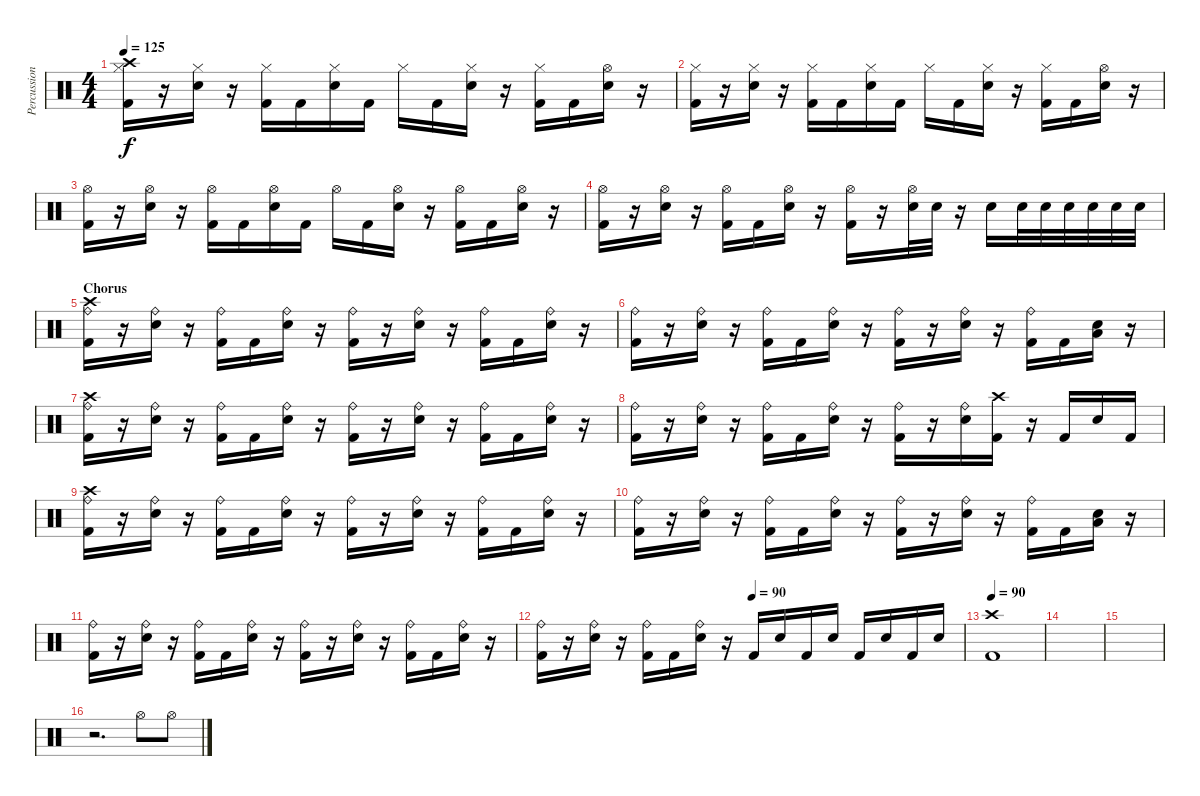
\track ("Percussioni" "Percussion") {instrument percussion}
\staff {score}
\articulation defaults
\ts (4 4)
\tempo 125
\clef neutral
\ks c
("Crash high (hit)" "Hi-Hat (closed)" "Kick (hit) 2").16{dy f} r.16 ("Hi-Hat (closed)" "Snare (hit) 2").16 r.16 ("Hi-Hat (closed)" "Kick (hit) 2").16 "Kick (hit) 2".16 ("Hi-Hat (closed)" "Snare (hit) 2").16 "Kick (hit) 2".16 "Hi-Hat (closed)".16 "Kick (hit) 2".16 ("Hi-Hat (closed)" "Snare (hit) 2").16 r.16 ("Hi-Hat (closed)" "Kick (hit) 2").16 "Kick (hit) 2".16 ("Hi-Hat (open)" "Snare (hit) 2").16 r.16 |
("Hi-Hat (closed)" "Kick (hit) 2").16 r.16 ("Hi-Hat (closed)" "Snare (hit) 2").16 r.16 ("Hi-Hat (closed)" "Kick (hit) 2").16 "Kick (hit) 2".16 ("Hi-Hat (closed)" "Snare (hit) 2").16 "Kick (hit) 2".16 "Hi-Hat (closed)".16 "Kick (hit) 2".16 ("Hi-Hat (closed)" "Snare (hit) 2").16 r.16 ("Hi-Hat (closed)" "Kick (hit) 2").16 "Kick (hit) 2".16 ("Hi-Hat (open)" "Snare (hit) 2").16 r.16 |
("Hi-Hat (open)" "Kick (hit) 2").16 r.16 ("Hi-Hat (open)" "Snare (hit) 2").16 r.16 ("Hi-Hat (open)" "Kick (hit) 2").16 "Kick (hit) 2".16 ("Hi-Hat (open)" "Snare (hit) 2").16 "Kick (hit) 2".16 "Hi-Hat (open)".16 "Kick (hit) 2".16 ("Hi-Hat (open)" "Snare (hit) 2").16 r.16 ("Hi-Hat (open)" "Kick (hit) 2").16 "Kick (hit) 2".16 ("Hi-Hat (open)" "Snare (hit) 2").16 r.16 |
("Hi-Hat (open)" "Kick (hit) 2").16 r.16 ("Hi-Hat (open)" "Snare (hit) 2").16 r.16 ("Hi-Hat (open)" "Kick (hit) 2").16 "Kick (hit) 2".16 ("Hi-Hat (open)" "Snare (hit) 2").16 r.16 ("Hi-Hat (open)" "Kick (hit) 2").16 r.16 ("Hi-Hat (open)" "Snare (hit) 2").32 "Snare (hit) 2".32 r.16 "Snare (hit) 2".16 "Snare (hit) 2".32 "Snare (hit) 2".32 "Snare (hit) 2".32 "Snare (hit) 2".32 "Snare (hit) 2".32 "Snare (hit) 2".32 |
\section ("" "Chorus")
("Crash high (hit)" "Ride (bell)" "Kick (hit) 2").16 r.16 ("Ride (bell)" "Snare (hit) 2").16 r.16 ("Ride (bell)" "Kick (hit) 2").16 "Kick (hit) 2".16 ("Ride (bell)" "Snare (hit) 2").16 r.16 ("Ride (bell)" "Kick (hit) 2").16 r.16 ("Ride (bell)" "Snare (hit) 2").16 r.16 ("Ride (bell)" "Kick (hit) 2").16 "Kick (hit) 2".16 ("Ride (bell)" "Snare (hit) 2").16 r.16 |
("Ride (bell)" "Kick (hit) 2").16 r.16 ("Ride (bell)" "Snare (hit) 2").16 r.16 ("Ride (bell)" "Kick (hit) 2").16 "Kick (hit) 2".16 ("Ride (bell)" "Snare (hit) 2").16 r.16 ("Ride (bell)" "Kick (hit) 2").16 r.16 ("Ride (bell)" "Snare (hit) 2").16 r.16 ("Ride (bell)" "Kick (hit) 2").16 "Kick (hit) 2".16 ("Low Tom (hit)" "Snare (hit) 2").16 r.16 |
("Crash high (hit)" "Ride (bell)" "Kick (hit) 2").16 r.16 ("Ride (bell)" "Snare (hit) 2").16 r.16 ("Ride (bell)" "Kick (hit) 2").16 "Kick (hit) 2".16 ("Ride (bell)" "Snare (hit) 2").16 r.16 ("Ride (bell)" "Kick (hit) 2").16 r.16 ("Ride (bell)" "Snare (hit) 2").16 r.16 ("Ride (bell)" "Kick (hit) 2").16 "Kick (hit) 2".16 ("Ride (bell)" "Snare (hit) 2").16 r.16 |
("Ride (bell)" "Kick (hit) 2").16 r.16 ("Ride (bell)" "Snare (hit) 2").16 r.16 ("Ride (bell)" "Kick (hit) 2").16 "Kick (hit) 2".16 ("Ride (bell)" "Snare (hit) 2").16 r.16 ("Ride (bell)" "Kick (hit) 2").16 r.16 ("Ride (bell)" "Snare (hit) 2").16 ("Crash high (hit)" "Kick (hit) 2").16 r.16 "Kick (hit) 2".16 "Snare (hit) 2".16 "Kick (hit) 2".16 |
("Crash high (hit)" "Ride (bell)" "Kick (hit) 2").16 r.16 ("Ride (bell)" "Snare (hit) 2").16 r.16 ("Ride (bell)" "Kick (hit) 2").16 "Kick (hit) 2".16 ("Ride (bell)" "Snare (hit) 2").16 r.16 ("Ride (bell)" "Kick (hit) 2").16 r.16 ("Ride (bell)" "Snare (hit) 2").16 r.16 ("Ride (bell)" "Kick (hit) 2").16 "Kick (hit) 2".16 ("Ride (bell)" "Snare (hit) 2").16 r.16 |
("Ride (bell)" "Kick (hit) 2").16 r.16 ("Ride (bell)" "Snare (hit) 2").16 r.16 ("Ride (bell)" "Kick (hit) 2").16 "Kick (hit) 2".16 ("Ride (bell)" "Snare (hit) 2").16 r.16 ("Ride (bell)" "Kick (hit) 2").16 r.16 ("Ride (bell)" "Snare (hit) 2").16 r.16 ("Ride (bell)" "Kick (hit) 2").16 "Kick (hit) 2".16 ("Low Tom (hit)" "Snare (hit) 2").16 r.16 |
("Ride (bell)" "Kick (hit) 2").16 r.16 ("Ride (bell)" "Snare (hit) 2").16 r.16 ("Ride (bell)" "Kick (hit) 2").16 "Kick (hit) 2".16 ("Ride (bell)" "Snare (hit) 2").16 r.16 ("Ride (bell)" "Kick (hit) 2").16 r.16 ("Ride (bell)" "Snare (hit) 2").16 r.16 ("Ride (bell)" "Kick (hit) 2").16 "Kick (hit) 2".16 ("Ride (bell)" "Snare (hit) 2").16 r.16 |
\tempo (90 0.5)
("Ride (bell)" "Kick (hit) 2").16 r.16 ("Ride (bell)" "Snare (hit) 2").16 r.16 ("Ride (bell)" "Kick (hit) 2").16 "Kick (hit) 2".16 ("Ride (bell)" "Snare (hit) 2").16 r.16 "Kick (hit) 2".16 "Snare (hit) 2".16 "Kick (hit) 2".16 "Snare (hit) 2".16 "Kick (hit) 2".16 "Snare (hit) 2".16 "Kick (hit) 2".16 "Snare (hit) 2".16 |
\tempo 90
("Crash high (hit)" "Kick (hit) 2").1 |
|
|
r.2{d} "Hi-Hat (open)".8 "Hi-Hat (open)".8
